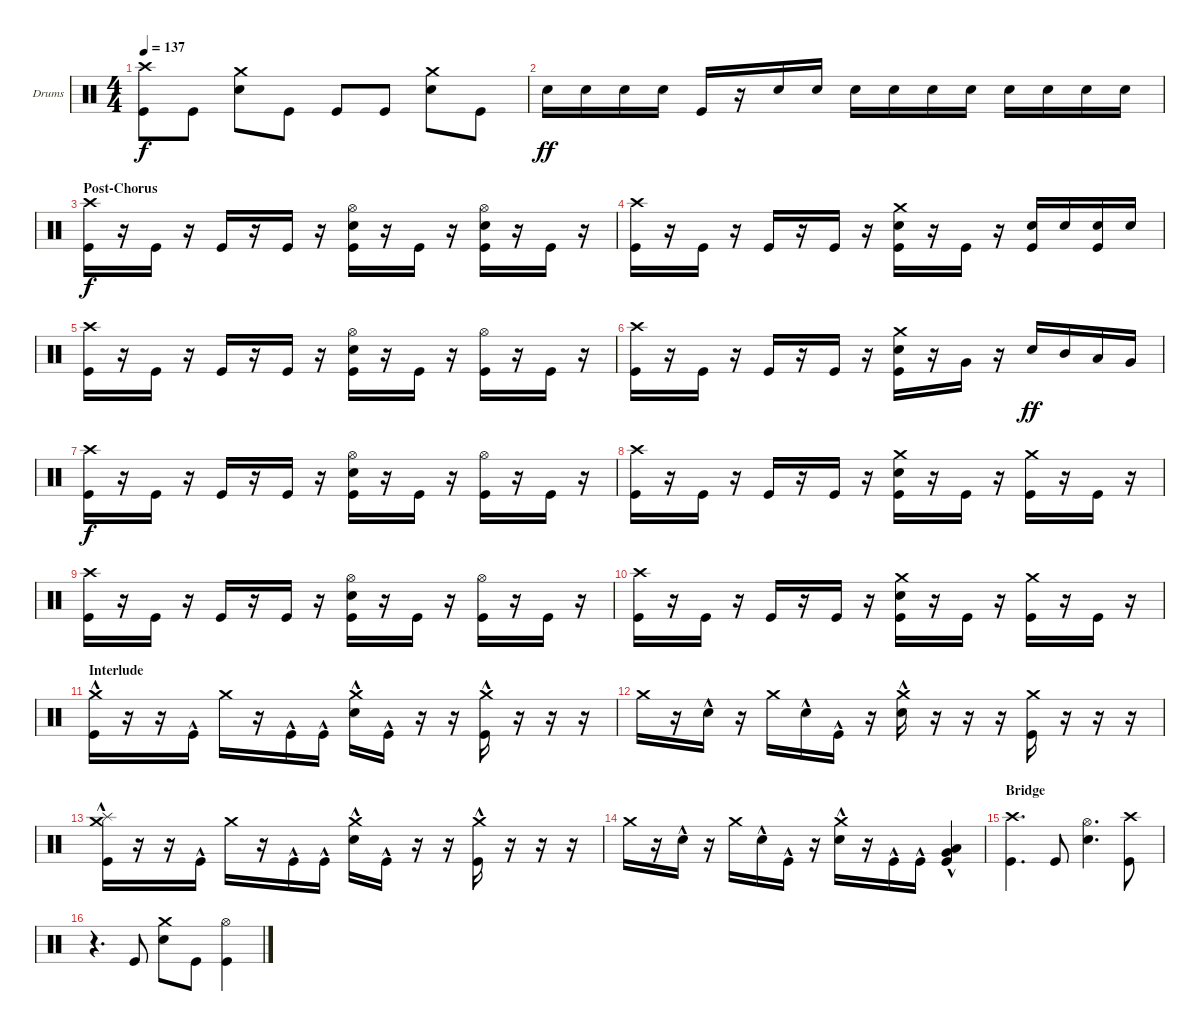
\defaultSystemsLayout 4
\bracketExtendMode groupsimilarinstruments
\firstSystemTrackNameOrientation horizontal
\otherSystemsTrackNameOrientation horizontal
\track ("Drumkit - Paul" "Drums") {instrument percussion}
\staff {score}
\articulation defaults
\ts (4 4)
\tempo 137
\clef neutral
\ks c
("Kick (hit)" "Crash high (hit)").8{dy f} "Kick (hit)".8 ("Snare (hit) 2" "Crash medium (hit)").8 "Kick (hit)".8 "Kick (hit)".8 "Kick (hit)".8 ("Snare (hit) 2" "Crash medium (hit)").8 "Kick (hit)".8 |
"Snare (hit) 2".16{dy ff} "Snare (hit) 2".16 "Snare (hit) 2".16 "Snare (hit) 2".16 "Kick (hit)".16 r.16 "Snare (hit) 2".16 "Snare (hit) 2".16 "Snare (hit) 2".16 "Snare (hit) 2".16 "Snare (hit) 2".16 "Snare (hit) 2".16 "Snare (hit) 2".16 "Snare (hit) 2".16 "Snare (hit) 2".16 "Snare (hit) 2".16 |
\section ("" "Post-Chorus")
("Kick (hit)" "Crash high (hit)").16{dy f} r.16 "Kick (hit)".16 r.16 "Kick (hit)".16 r.16 "Kick (hit)".16 r.16 ("Kick (hit)" "Snare (hit) 2" "Hi-Hat (open)").16 r.16 "Kick (hit)".16 r.16 ("Kick (hit)" "Hi-Hat (open)" "Snare (hit) 2").16 r.16 "Kick (hit)".16 r.16 |
("Kick (hit)" "Crash high (hit)").16 r.16 "Kick (hit)".16 r.16 "Kick (hit)".16 r.16 "Kick (hit)".16 r.16 ("Kick (hit)" "Snare (hit) 2" "Crash medium (hit)").16 r.16 "Kick (hit)".16 r.16 ("Snare (hit) 2" "Kick (hit)").16 "Snare (hit) 2".16 ("Snare (hit) 2" "Kick (hit)").16 "Snare (hit) 2".16 |
("Kick (hit)" "Crash high (hit)").16 r.16 "Kick (hit)".16 r.16 "Kick (hit)".16 r.16 "Kick (hit)".16 r.16 ("Kick (hit)" "Snare (hit) 2" "Hi-Hat (open)").16 r.16 "Kick (hit)".16 r.16 ("Kick (hit)" "Hi-Hat (open)").16 r.16 "Kick (hit)".16 r.16 |
("Kick (hit)" "Crash high (hit)").16 r.16 "Kick (hit)".16 r.16 "Kick (hit)".16 r.16 "Kick (hit)".16 r.16 ("Kick (hit)" "Snare (hit) 2" "Crash medium (hit)").16 r.16 "Very Low Tom (hit)".16 r.16 "Snare (hit) 2".16{dy ff} "Mid Tom (hit)".16 "Low Tom (hit)".16 "Very Low Tom (hit)".16 |
("Kick (hit)" "Crash high (hit)").16{dy f} r.16 "Kick (hit)".16 r.16 "Kick (hit)".16 r.16 "Kick (hit)".16 r.16 ("Kick (hit)" "Snare (hit) 2" "Hi-Hat (open)").16 r.16 "Kick (hit)".16 r.16 ("Kick (hit)" "Hi-Hat (open)").16 r.16 "Kick (hit)".16 r.16 |
("Kick (hit)" "Crash high (hit)").16 r.16 "Kick (hit)".16 r.16 "Kick (hit)".16 r.16 "Kick (hit)".16 r.16 ("Kick (hit)" "Snare (hit) 2" "Crash medium (hit)").16 r.16 "Kick (hit)".16 r.16 ("Kick (hit)" "Crash medium (hit)").16 r.16 "Kick (hit)".16 r.16 |
("Kick (hit)" "Crash high (hit)").16 r.16 "Kick (hit)".16 r.16 "Kick (hit)".16 r.16 "Kick (hit)".16 r.16 ("Kick (hit)" "Snare (hit) 2" "Hi-Hat (open)").16 r.16 "Kick (hit)".16 r.16 ("Kick (hit)" "Hi-Hat (open)").16 r.16 "Kick (hit)".16 r.16 |
("Kick (hit)" "Crash high (hit)").16 r.16 "Kick (hit)".16 r.16 "Kick (hit)".16 r.16 "Kick (hit)".16 r.16 ("Kick (hit)" "Snare (hit) 2" "Crash medium (hit)").16 r.16 "Kick (hit)".16 r.16 ("Kick (hit)" "Crash medium (hit)").16 r.16 "Kick (hit)".16 r.16 |
\section ("" "Interlude")
("Crash medium (hit)" "Kick (hit)"{hac}).16 r.16 r.16 "Kick (hit)"{hac}.16 "Crash medium (hit)".16 r.16 "Kick (hit)"{hac}.16 "Kick (hit)"{hac}.16 ("Crash medium (hit)" "Snare (hit) 2"{hac}).16 "Kick (hit)"{hac}.16 r.16 r.16 ("Crash medium (hit)" "Kick (hit)"{hac}).16 r.16 r.16 r.16 |
"Crash medium (hit)".16 r.16 "Snare (hit) 2"{hac}.16 r.16 "Crash medium (hit)".16 "Snare (hit) 2"{hac}.16 "Kick (hit)"{hac}.16 r.16 ("Snare (hit) 2"{hac} "Crash medium (hit)").16 r.16 r.16 r.16 ("Kick (hit)" "Crash medium (hit)").16 r.16 r.16 r.16 |
("Crash medium (hit)" "Kick (hit)"{hac} "Splash (hit)").16 r.16 r.16 "Kick (hit)"{hac}.16 "Crash medium (hit)".16 r.16 "Kick (hit)"{hac}.16 "Kick (hit)"{hac}.16 ("Crash medium (hit)" "Snare (hit) 2"{hac}).16 "Kick (hit)"{hac}.16 r.16 r.16 ("Crash medium (hit)" "Kick (hit)"{hac}).16 r.16 r.16 r.16 |
"Crash medium (hit)".16 r.16 "Snare (hit) 2"{hac}.16 r.16 "Crash medium (hit)".16 "Snare (hit) 2"{hac}.16 "Kick (hit)"{hac}.16 r.16 ("Snare (hit) 2"{hac} "Crash medium (hit)").16 r.16 "Kick (hit)"{hac}.16 "Kick (hit)"{hac}.16 ("Kick (hit)"{hac} "Very Low Tom (hit)"{hac} "Low Tom (hit)"{hac}).4 |
\section ("" "Bridge")
("Crash high (hit)" "Kick (hit)").4{d} "Kick (hit)".8 ("Snare (hit) 2" "Hi-Hat (open)").4{d} ("Kick (hit)" "Crash high (hit)").8 |
r.4{d} "Kick (hit)".8 ("Snare (hit) 2" "Crash medium (hit)").8 "Kick (hit)".8 ("Kick (hit)" "Hi-Hat (open)").4
